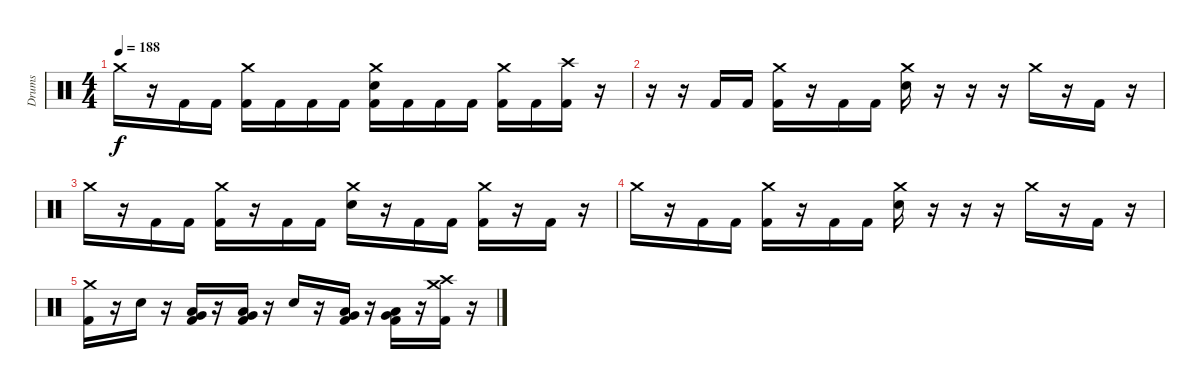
\track ("Drums" "Drums") {instrument percussion}
\staff {score}
\articulation defaults
\ts (4 4)
\tempo 188
\clef neutral
\ks c "Crash medium (hit)".16{dy f}
r.16 "Kick (hit) 2".16 "Kick (hit) 2".16 ("Crash medium (hit)" "Kick (hit) 2").16 "Kick (hit) 2".16 "Kick (hit) 2".16 "Kick (hit) 2".16 ("Crash medium (hit)" "Snare (hit) 2" "Kick (hit) 2").16 "Kick (hit) 2".16 "Kick (hit) 2".16 "Kick (hit) 2".16 ("Crash medium (hit)" "Kick (hit) 2").16 "Kick (hit) 2".16 ("Crash high (hit)" "Kick (hit) 2").16 r.16 |
r.16 r.16 "Kick (hit) 2".16 "Kick (hit) 2".16 ("Crash medium (hit)" "Kick (hit) 2").16 r.16 "Kick (hit) 2".16 "Kick (hit) 2".16 ("Crash medium (hit)" "Snare (hit) 2").16 r.16 r.16 r.16 "Crash medium (hit)".16 r.16 "Kick (hit) 2".16 r.16 |
"Crash medium (hit)".16 r.16 "Kick (hit) 2".16 "Kick (hit) 2".16 ("Crash medium (hit)" "Kick (hit) 2").16 r.16 "Kick (hit) 2".16 "Kick (hit) 2".16 ("Crash medium (hit)" "Snare (hit) 2").16 r.16 "Kick (hit) 2".16 "Kick (hit) 2".16 ("Crash medium (hit)" "Kick (hit) 2").16 r.16 "Kick (hit) 2".16 r.16 |
"Crash medium (hit)".16 r.16 "Kick (hit) 2".16 "Kick (hit) 2".16 ("Crash medium (hit)" "Kick (hit) 2").16 r.16 "Kick (hit) 2".16 "Kick (hit) 2".16 ("Crash medium (hit)" "Snare (hit) 2").16 r.16 r.16 r.16 "Crash medium (hit)".16 r.16 "Kick (hit) 2".16 r.16 |
("Crash medium (hit)" "Kick (hit) 2").16 r.16 "Snare (hit) 2".16 r.16 ("Low Tom (hit)" "Very Low Tom (hit)" "Kick (hit) 2").16 r.16 ("Low Tom (hit)" "Very Low Tom (hit)" "Kick (hit) 2").16 r.16 "Snare (hit) 2".16 r.16 ("Very Low Tom (hit)" "Low Floor Tom (hit)" "Kick (hit) 2").16 r.16 ("Very Low Tom (hit)" "Low Floor Tom (hit)" "Kick (hit) 2").16 r.16 ("Crash medium (hit)" "Crash high (hit)" "Kick (hit) 2").16 r.16
